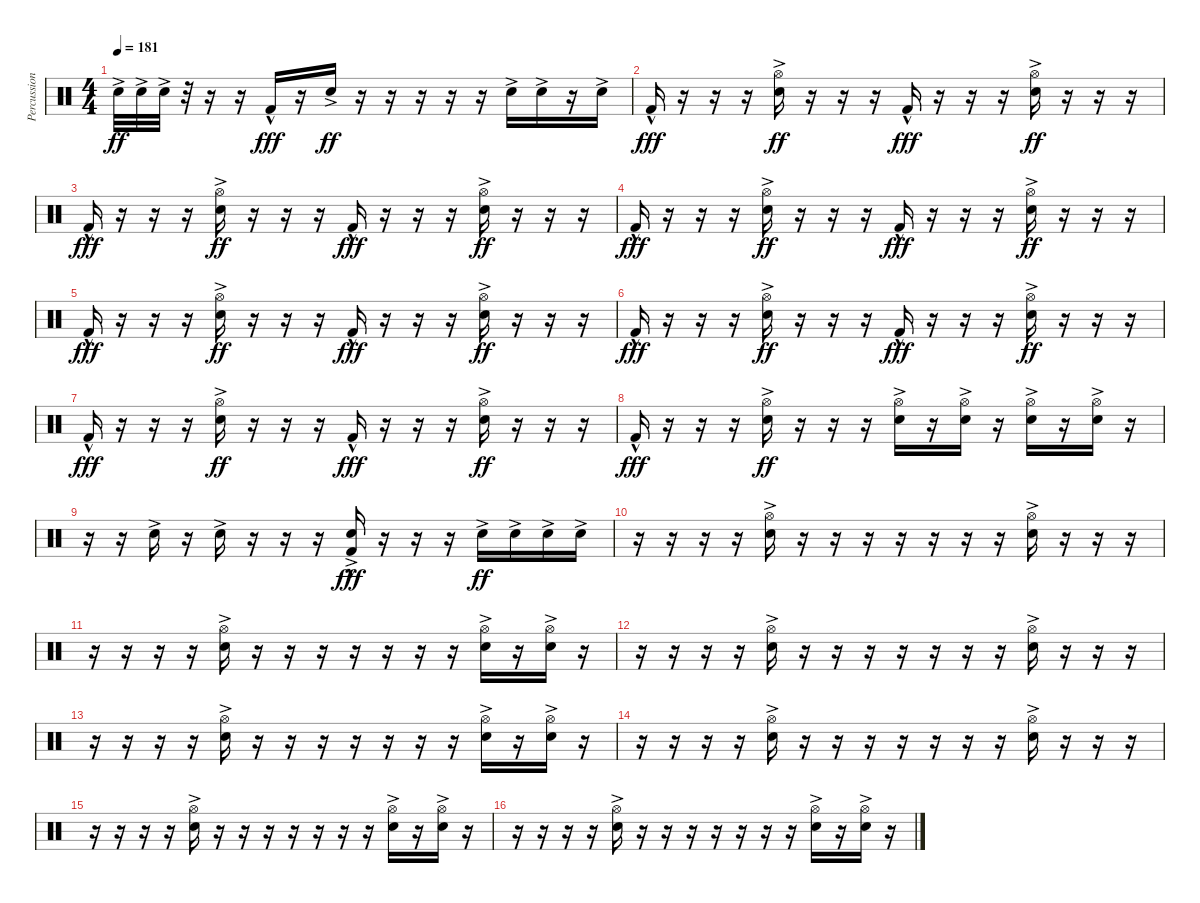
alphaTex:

\track ("Percussion" "Percussion") {instrument percussion}
\staff {score}
\articulation defaults
\ts (4 4)
\tempo 181
\clef neutral
\ks c "Snare (hit) 2"{ac}.32{dy ff} "Snare (hit) 2"{ac}.32 "Snare (hit) 2"{ac}.32
r.32 r.16 r.16 "Kick (hit) 2"{hac}.16{dy fff} r.16 "Snare (hit) 2"{ac}.16{dy ff} r.16 r.16 r.16 r.16 r.16 "Snare (hit) 2"{ac}.16 "Snare (hit) 2"{ac}.16 r.16 "Snare (hit) 2"{ac}.16 |
"Kick (hit) 2"{hac}.16{dy fff} r.16 r.16 r.16 ("Hi-Hat (open)"{ac} "Snare (hit) 2"{ac}).16{dy ff} r.16 r.16 r.16 "Kick (hit) 2"{hac}.16{dy fff} r.16 r.16 r.16 ("Hi-Hat (open)"{ac} "Snare (hit) 2"{ac}).16{dy ff} r.16 r.16 r.16 |
"Kick (hit) 2"{hac}.16{dy fff} r.16 r.16 r.16 ("Hi-Hat (open)"{ac} "Snare (hit) 2"{ac}).16{dy ff} r.16 r.16 r.16 "Kick (hit) 2"{hac}.16{dy fff} r.16 r.16 r.16 ("Hi-Hat (open)"{ac} "Snare (hit) 2"{ac}).16{dy ff} r.16 r.16 r.16 |
"Kick (hit) 2"{hac}.16{dy fff} r.16 r.16 r.16 ("Hi-Hat (open)"{ac} "Snare (hit) 2"{ac}).16{dy ff} r.16 r.16 r.16 "Kick (hit) 2"{hac}.16{dy fff} r.16 r.16 r.16 ("Hi-Hat (open)"{ac} "Snare (hit) 2"{ac}).16{dy ff} r.16 r.16 r.16 |
"Kick (hit) 2"{hac}.16{dy fff} r.16 r.16 r.16 ("Hi-Hat (open)"{ac} "Snare (hit) 2"{ac}).16{dy ff} r.16 r.16 r.16 "Kick (hit) 2"{hac}.16{dy fff} r.16 r.16 r.16 ("Hi-Hat (open)"{ac} "Snare (hit) 2"{ac}).16{dy ff} r.16 r.16 r.16 |
"Kick (hit) 2"{hac}.16{dy fff} r.16 r.16 r.16 ("Hi-Hat (open)"{ac} "Snare (hit) 2"{ac}).16{dy ff} r.16 r.16 r.16 "Kick (hit) 2"{hac}.16{dy fff} r.16 r.16 r.16 ("Hi-Hat (open)"{ac} "Snare (hit) 2"{ac}).16{dy ff} r.16 r.16 r.16 |
"Kick (hit) 2"{hac}.16{dy fff} r.16 r.16 r.16 ("Hi-Hat (open)"{ac} "Snare (hit) 2"{ac}).16{dy ff} r.16 r.16 r.16 "Kick (hit) 2"{hac}.16{dy fff} r.16 r.16 r.16 ("Hi-Hat (open)"{ac} "Snare (hit) 2"{ac}).16{dy ff} r.16 r.16 r.16 |
"Kick (hit) 2"{hac}.16{dy fff} r.16 r.16 r.16 ("Hi-Hat (open)"{ac} "Snare (hit) 2"{ac}).16{dy ff} r.16 r.16 r.16 ("Hi-Hat (open)"{ac} "Snare (hit) 2"{ac}).16 r.16 ("Hi-Hat (open)"{ac} "Snare (hit) 2"{ac}).16 r.16 ("Hi-Hat (open)"{ac} "Snare (hit) 2"{ac}).16 r.16 ("Hi-Hat (open)"{ac} "Snare (hit) 2"{ac}).16 r.16 |
r.16 r.16 "Snare (hit) 2"{ac}.16 r.16 "Snare (hit) 2"{ac}.16 r.16 r.16 r.16 ("Snare (hit) 2"{ac} "Kick (hit) 2"{hac}).16{dy fff} r.16 r.16 r.16 "Snare (hit) 2"{ac}.16{dy ff} "Snare (hit) 2"{ac}.16 "Snare (hit) 2"{ac}.16 "Snare (hit) 2"{ac}.16 |
r.16 r.16 r.16 r.16 ("Hi-Hat (open)"{ac} "Snare (hit) 2"{ac}).16 r.16 r.16 r.16 r.16 r.16 r.16 r.16 ("Hi-Hat (open)"{ac} "Snare (hit) 2"{ac}).16 r.16 r.16 r.16 |
r.16 r.16 r.16 r.16 ("Hi-Hat (open)"{ac} "Snare (hit) 2"{ac}).16 r.16 r.16 r.16 r.16 r.16 r.16 r.16 ("Hi-Hat (open)"{ac} "Snare (hit) 2"{ac}).16 r.16 ("Hi-Hat (open)"{ac} "Snare (hit) 2"{ac}).16 r.16 |
r.16 r.16 r.16 r.16 ("Hi-Hat (open)"{ac} "Snare (hit) 2"{ac}).16 r.16 r.16 r.16 r.16 r.16 r.16 r.16 ("Hi-Hat (open)"{ac} "Snare (hit) 2"{ac}).16 r.16 r.16 r.16 |
r.16 r.16 r.16 r.16 ("Hi-Hat (open)"{ac} "Snare (hit) 2"{ac}).16 r.16 r.16 r.16 r.16 r.16 r.16 r.16 ("Hi-Hat (open)"{ac} "Snare (hit) 2"{ac}).16 r.16 ("Hi-Hat (open)"{ac} "Snare (hit) 2"{ac}).16 r.16 |
r.16 r.16 r.16 r.16 ("Hi-Hat (open)"{ac} "Snare (hit) 2"{ac}).16 r.16 r.16 r.16 r.16 r.16 r.16 r.16 ("Hi-Hat (open)"{ac} "Snare (hit) 2"{ac}).16 r.16 r.16 r.16 |
r.16 r.16 r.16 r.16 ("Hi-Hat (open)"{ac} "Snare (hit) 2"{ac}).16 r.16 r.16 r.16 r.16 r.16 r.16 r.16 ("Hi-Hat (open)"{ac} "Snare (hit) 2"{ac}).16 r.16 ("Hi-Hat (open)"{ac} "Snare (hit) 2"{ac}).16 r.16 |
r.16 r.16 r.16 r.16 ("Hi-Hat (open)"{ac} "Snare (hit) 2"{ac}).16 r.16 r.16 r.16 r.16 r.16 r.16 r.16 ("Hi-Hat (open)"{ac} "Snare (hit) 2"{ac}).16 r.16 ("Hi-Hat (open)"{ac} "Snare (hit) 2"{ac}).16 r.16
